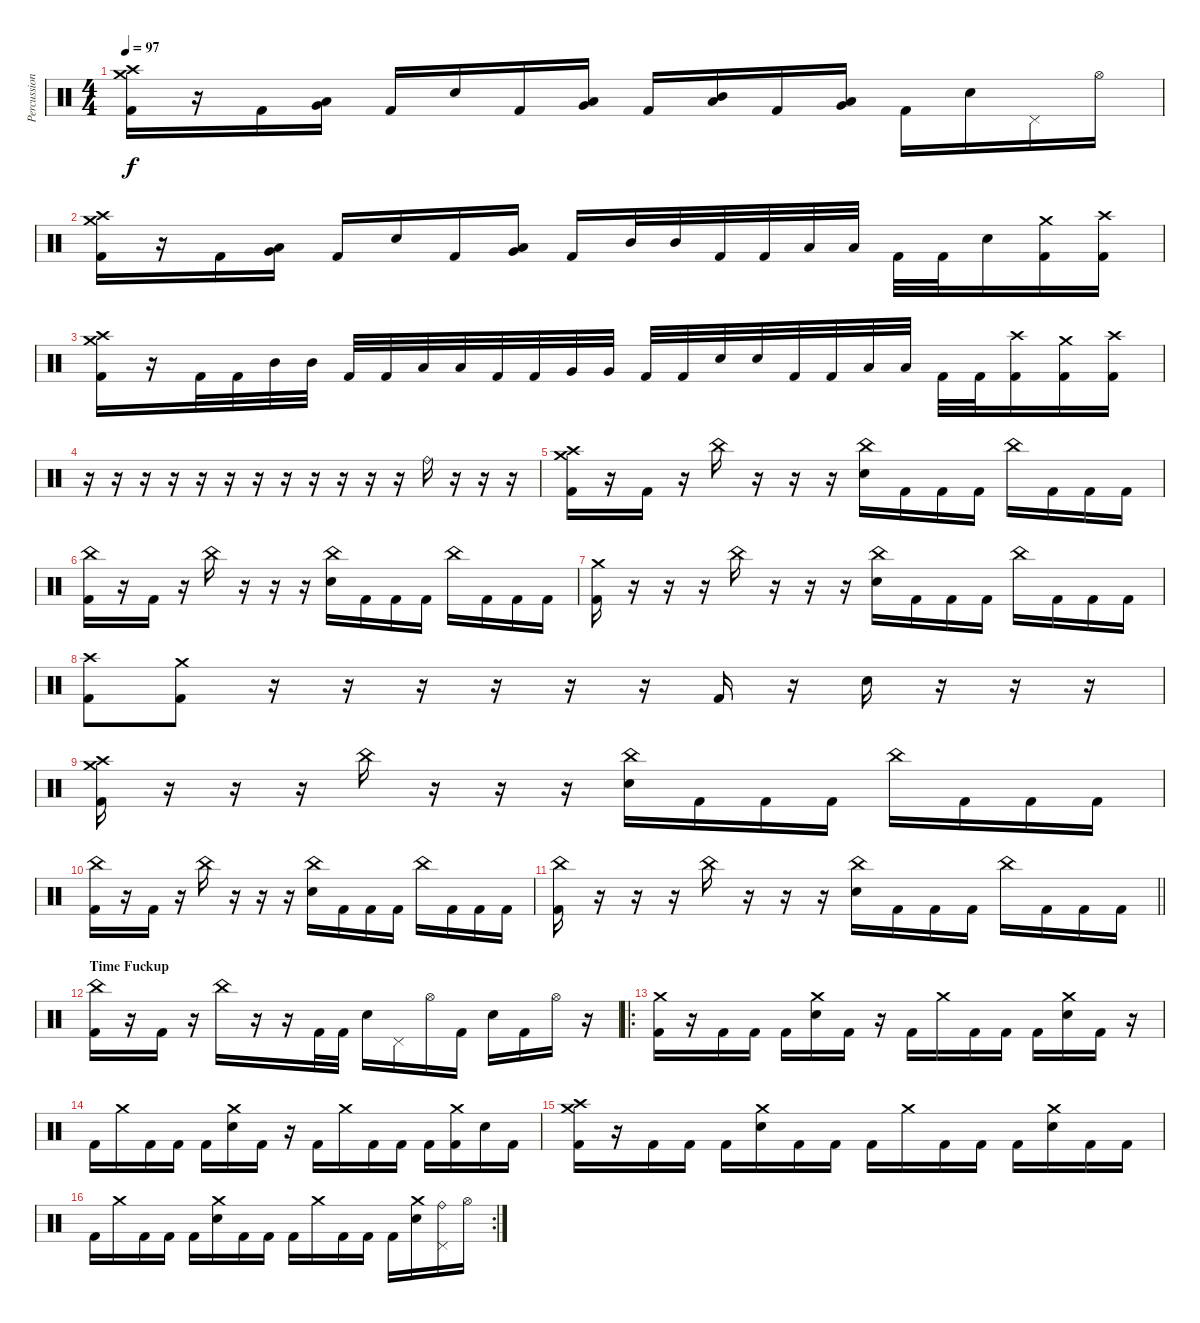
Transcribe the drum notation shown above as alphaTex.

\track ("Percussion" "Percussion") {instrument percussion}
\staff {score}
\articulation defaults
\ts (4 4)
\tempo 97
\clef neutral
\ks c
("Crash medium (hit)" "Crash high (hit)" "Kick (hit) 2").16{dy f} r.16 "Kick (hit) 2".16 ("Very Low Tom (hit)" "Low Tom (hit)").16 "Kick (hit) 2".16 "Snare (hit) 2".16 "Kick (hit) 2".16 ("Very Low Tom (hit)" "Low Tom (hit)").16 "Kick (hit) 2".16 ("Low Tom (hit)" "Mid Tom (hit)").16 "Kick (hit) 2".16 ("Very Low Tom (hit)" "Low Tom (hit)").16 "Kick (hit) 2".16 "Snare (hit) 2".16 "Pedal Hi-Hat (hit)".16 "Hi-Hat (open)".16 |
("Crash medium (hit)" "Crash high (hit)" "Kick (hit) 2").16 r.16 "Kick (hit) 2".16 ("Very Low Tom (hit)" "Low Tom (hit)").16 "Kick (hit) 2".16 "Snare (hit) 2".16 "Kick (hit) 2".16 ("Very Low Tom (hit)" "Low Tom (hit)").16 "Kick (hit) 2".16 "Mid Tom (hit)".32 "Mid Tom (hit)".32 "Kick (hit) 2".32 "Kick (hit) 2".32 "Low Tom (hit)".32 "Low Tom (hit)".32 "Kick (hit) 2".32 "Kick (hit) 2".32 "Snare (hit) 2".16 ("Crash medium (hit)" "Kick (hit) 2").16 ("Crash high (hit)" "Kick (hit) 2").16 |
("Crash medium (hit)" "Crash high (hit)" "Kick (hit) 2").16 r.16 "Kick (hit) 2".32 "Kick (hit) 2".32 "Mid Tom (hit)".32 "Mid Tom (hit)".32 "Kick (hit) 2".32 "Kick (hit) 2".32 "Low Tom (hit)".32 "Low Tom (hit)".32 "Kick (hit) 2".32 "Kick (hit) 2".32 "Very Low Tom (hit)".32 "Very Low Tom (hit)".32 "Kick (hit) 2".32 "Kick (hit) 2".32 "Snare (hit) 2".32 "Snare (hit) 2".32 "Kick (hit) 2".32 "Kick (hit) 2".32 "Low Tom (hit)".32 "Low Tom (hit)".32 "Kick (hit) 2".32 "Kick (hit) 2".32 ("Crash high (hit)" "Kick (hit) 2").16 ("Crash medium (hit)" "Kick (hit) 2").16 ("Crash high (hit)" "Kick (hit) 2").16 |
r.16 r.16 r.16 r.16 r.16 r.16 r.16 r.16 r.16 r.16 r.16 r.16 "Ride (bell)".16 r.16 r.16 r.16 |
("Crash medium (hit)" "Crash high (hit)" "Kick (hit) 2").16 r.16 "Kick (hit) 2".16 r.16 "China (hit)".16 r.16 r.16 r.16 ("China (hit)" "Snare (hit) 2").16 "Kick (hit) 2".16 "Kick (hit) 2".16 "Kick (hit) 2".16 "China (hit)".16 "Kick (hit) 2".16 "Kick (hit) 2".16 "Kick (hit) 2".16 |
("China (hit)" "Kick (hit) 2").16 r.16 "Kick (hit) 2".16 r.16 "China (hit)".16 r.16 r.16 r.16 ("China (hit)" "Snare (hit) 2").16 "Kick (hit) 2".16 "Kick (hit) 2".16 "Kick (hit) 2".16 "China (hit)".16 "Kick (hit) 2".16 "Kick (hit) 2".16 "Kick (hit) 2".16 |
("Crash medium (hit)" "Kick (hit) 2").16 r.16 r.16 r.16 "China (hit)".16 r.16 r.16 r.16 ("China (hit)" "Snare (hit) 2").16 "Kick (hit) 2".16 "Kick (hit) 2".16 "Kick (hit) 2".16 "China (hit)".16 "Kick (hit) 2".16 "Kick (hit) 2".16 "Kick (hit) 2".16 |
("Crash high (hit)" "Kick (hit) 2").8 ("Crash medium (hit)" "Kick (hit) 2").8 r.16 r.16 r.16 r.16 r.16 r.16 "Kick (hit) 2".16 r.16 "Snare (hit) 2".16 r.16 r.16 r.16 |
("Crash medium (hit)" "Crash high (hit)" "Kick (hit) 2").16 r.16 r.16 r.16 "China (hit)".16 r.16 r.16 r.16 ("China (hit)" "Snare (hit) 2").16 "Kick (hit) 2".16 "Kick (hit) 2".16 "Kick (hit) 2".16 "China (hit)".16 "Kick (hit) 2".16 "Kick (hit) 2".16 "Kick (hit) 2".16 |
("China (hit)" "Kick (hit) 2").16 r.16 "Kick (hit) 2".16 r.16 "China (hit)".16 r.16 r.16 r.16 ("China (hit)" "Snare (hit) 2").16 "Kick (hit) 2".16 "Kick (hit) 2".16 "Kick (hit) 2".16 "China (hit)".16 "Kick (hit) 2".16 "Kick (hit) 2".16 "Kick (hit) 2".16 |
\barLineRight lightlight
("China (hit)" "Kick (hit) 2").16 r.16 r.16 r.16 "China (hit)".16 r.16 r.16 r.16 ("China (hit)" "Snare (hit) 2").16 "Kick (hit) 2".16 "Kick (hit) 2".16 "Kick (hit) 2".16 "China (hit)".16 "Kick (hit) 2".16 "Kick (hit) 2".16 "Kick (hit) 2".16 |
\section ("" "Time Fuckup")
("China (hit)" "Kick (hit) 2").16 r.16 "Kick (hit) 2".16 r.16 "China (hit)".16 r.16 r.16 "Kick (hit) 2".32 "Kick (hit) 2".32 "Snare (hit) 2".16 "Pedal Hi-Hat (hit)".16 "Hi-Hat (open)".16 "Kick (hit) 2".16 "Snare (hit) 2".16 "Kick (hit) 2".16 "Hi-Hat (open)".16 r.16 |
\ro
("Crash medium (hit)" "Kick (hit) 2").16 r.16 "Kick (hit) 2".16 "Kick (hit) 2".16 "Kick (hit) 2".16 ("Crash medium (hit)" "Snare (hit) 2").16 "Kick (hit) 2".16 r.16 "Kick (hit) 2".16 "Crash medium (hit)".16 "Kick (hit) 2".16 "Kick (hit) 2".16 "Kick (hit) 2".16 ("Crash medium (hit)" "Snare (hit) 2").16 "Kick (hit) 2".16 r.16 |
"Kick (hit) 2".16 "Crash medium (hit)".16 "Kick (hit) 2".16 "Kick (hit) 2".16 "Kick (hit) 2".16 ("Crash medium (hit)" "Snare (hit) 2").16 "Kick (hit) 2".16 r.16 "Kick (hit) 2".16 "Crash medium (hit)".16 "Kick (hit) 2".16 "Kick (hit) 2".16 "Kick (hit) 2".16 ("Crash medium (hit)" "Kick (hit) 2").16 "Snare (hit) 2".16 "Kick (hit) 2".16 |
("Crash medium (hit)" "Crash high (hit)" "Kick (hit) 2").16 r.16 "Kick (hit) 2".16 "Kick (hit) 2".16 "Kick (hit) 2".16 ("Crash medium (hit)" "Snare (hit) 2").16 "Kick (hit) 2".16 "Kick (hit) 2".16 "Kick (hit) 2".16 "Crash medium (hit)".16 "Kick (hit) 2".16 "Kick (hit) 2".16 "Kick (hit) 2".16 ("Crash medium (hit)" "Snare (hit) 2").16 "Kick (hit) 2".16 "Kick (hit) 2".16 |
\rc 2 "Kick (hit) 2".16 "Crash medium (hit)".16 "Kick (hit) 2".16 "Kick (hit) 2".16 "Kick (hit) 2".16
("Crash medium (hit)" "Snare (hit) 2").16 "Kick (hit) 2".16 "Kick (hit) 2".16 "Kick (hit) 2".16 "Crash medium (hit)".16 "Kick (hit) 2".16 "Kick (hit) 2".16 "Kick (hit) 2".16 ("Crash medium (hit)" "Snare (hit) 2").16 ("Pedal Hi-Hat (hit)" "Ride (bell)").16 "Hi-Hat (open)".16
